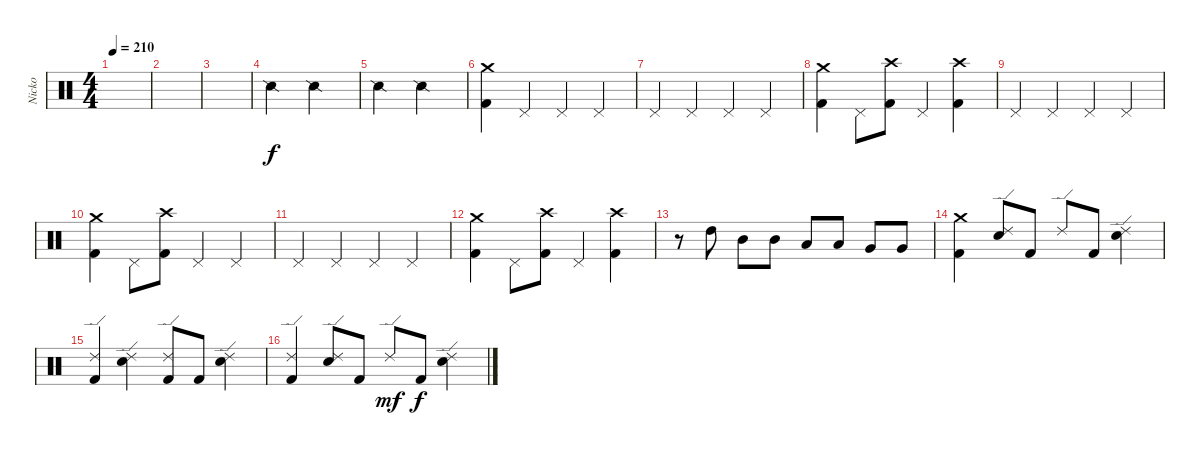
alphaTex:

\track ("Nicko" "Nicko") {instrument percussion}
\staff {score}
\articulation defaults
\ts (4 4)
\tempo 210
\clef neutral
\ks c
|
|
|
"Snare (side stick) 2".2 "Snare (side stick) 2".2 |
"Snare (side stick) 2".2 "Snare (side stick) 2".2 |
("Crash medium (hit)" "Kick (hit) 2").4 "Pedal Hi-Hat (hit)".4 "Pedal Hi-Hat (hit)".4 "Pedal Hi-Hat (hit)".4 |
"Pedal Hi-Hat (hit)".4 "Pedal Hi-Hat (hit)".4 "Pedal Hi-Hat (hit)".4 "Pedal Hi-Hat (hit)".4 |
("Crash medium (hit)" "Kick (hit) 2").4 "Pedal Hi-Hat (hit)".8 ("Crash high (hit)" "Kick (hit) 2").8 "Pedal Hi-Hat (hit)".4 ("Crash high (hit)" "Kick (hit) 2").4 |
"Pedal Hi-Hat (hit)".4 "Pedal Hi-Hat (hit)".4 "Pedal Hi-Hat (hit)".4 "Pedal Hi-Hat (hit)".4 |
("Crash medium (hit)" "Kick (hit) 2").4 "Pedal Hi-Hat (hit)".8 ("Crash high (hit)" "Kick (hit) 2").8 "Pedal Hi-Hat (hit)".4 "Pedal Hi-Hat (hit)".4 |
"Pedal Hi-Hat (hit)".4 "Pedal Hi-Hat (hit)".4 "Pedal Hi-Hat (hit)".4 "Pedal Hi-Hat (hit)".4 |
("Crash medium (hit)" "Kick (hit) 2").4 "Pedal Hi-Hat (hit)".8 ("Crash high (hit)" "Kick (hit) 2").8 "Pedal Hi-Hat (hit)".4 ("Crash high (hit)" "Kick (hit) 2").4 |
r.8 "High Tom (hit)".8 "Mid Tom (hit)".8 "Mid Tom (hit)".8 "Low Tom (hit)".8 "Low Tom (hit)".8 "Very Low Tom (hit)".8 "Very Low Tom (hit)".8 |
("Crash medium (hit)" "Kick (hit) 2").4 ("Ride (edge) 2" "Electric Snare (hit)").8 "Kick (hit) 2".8 "Ride (edge) 2".8 "Kick (hit) 2".8 ("Ride (edge) 2" "Electric Snare (hit)").4 |
("Ride (edge) 2" "Kick (hit) 2").4 ("Ride (edge) 2" "Electric Snare (hit)").4 ("Ride (edge) 2" "Kick (hit) 2").8 "Kick (hit) 2".8 ("Ride (edge) 2" "Electric Snare (hit)").4 |
("Ride (edge) 2" "Kick (hit) 2").4 ("Ride (edge) 2" "Electric Snare (hit)").8 "Kick (hit) 2".8 "Ride (edge) 2".8{dy mf} "Kick (hit) 2".8{dy f} ("Ride (edge) 2" "Electric Snare (hit)").4
